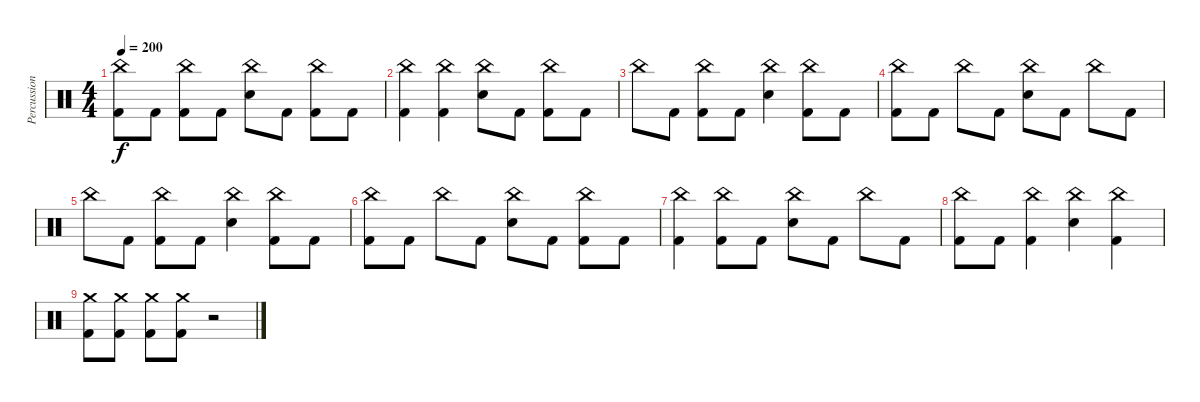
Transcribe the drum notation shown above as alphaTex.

\track ("Percussion" "Percussion") {instrument percussion}
\staff {score}
\articulation defaults
\ts (4 4)
\tempo 200
\clef neutral
\ks c
("China (hit)" "Kick (hit) 2").8{dy f} "Kick (hit) 2".8 ("China (hit)" "Kick (hit) 2").8 "Kick (hit) 2".8 ("China (hit)" "Electric Snare (hit)").8 "Kick (hit) 2".8 ("China (hit)" "Kick (hit) 2").8 "Kick (hit) 2".8 |
("China (hit)" "Kick (hit) 2").4 ("China (hit)" "Kick (hit) 2").4 ("China (hit)" "Electric Snare (hit)").8 "Kick (hit) 2".8 ("China (hit)" "Kick (hit) 2").8 "Kick (hit) 2".8 |
"China (hit)".8 "Kick (hit) 2".8 ("China (hit)" "Kick (hit) 2").8 "Kick (hit) 2".8 ("China (hit)" "Electric Snare (hit)").4 ("China (hit)" "Kick (hit) 2").8 "Kick (hit) 2".8 |
("China (hit)" "Kick (hit) 2").8 "Kick (hit) 2".8 "China (hit)".8 "Kick (hit) 2".8 ("China (hit)" "Electric Snare (hit)").8 "Kick (hit) 2".8 "China (hit)".8 "Kick (hit) 2".8 |
"China (hit)".8 "Kick (hit) 2".8 ("China (hit)" "Kick (hit) 2").8 "Kick (hit) 2".8 ("China (hit)" "Electric Snare (hit)").4 ("China (hit)" "Kick (hit) 2").8 "Kick (hit) 2".8 |
("China (hit)" "Kick (hit) 2").8 "Kick (hit) 2".8 "China (hit)".8 "Kick (hit) 2".8 ("China (hit)" "Electric Snare (hit)").8 "Kick (hit) 2".8 ("China (hit)" "Kick (hit) 2").8 "Kick (hit) 2".8 |
("China (hit)" "Kick (hit) 2").4 ("China (hit)" "Kick (hit) 2").8 "Kick (hit) 2".8 ("China (hit)" "Electric Snare (hit)").8 "Kick (hit) 2".8 "China (hit)".8 "Kick (hit) 2".8 |
("China (hit)" "Kick (hit) 2").8 "Kick (hit) 2".8 ("China (hit)" "Kick (hit) 2").4 ("China (hit)" "Electric Snare (hit)").4 ("China (hit)" "Kick (hit) 2").4 |
("Crash medium (hit)" "Kick (hit) 2").8 ("Crash medium (hit)" "Kick (hit) 2").8 ("Crash medium (hit)" "Kick (hit) 2").8 ("Crash medium (hit)" "Kick (hit) 2").8 r.2
